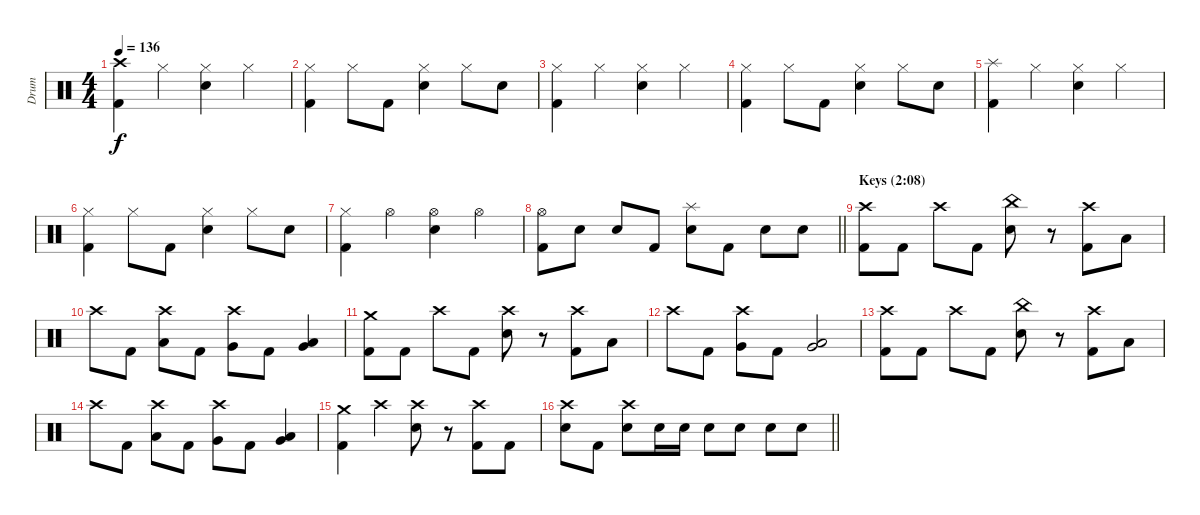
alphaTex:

\track ("Drum" "Drum") {instrument percussion}
\staff {score}
\articulation defaults
\ts (4 4)
\tempo 136
\clef neutral
\ks c
("Crash high (hit)" "Kick (hit) 2").4{dy f} "Hi-Hat (closed)".4 ("Hi-Hat (closed)" "Snare (hit) 2").4 "Hi-Hat (closed)".4 |
("Hi-Hat (closed)" "Kick (hit) 2").4 "Hi-Hat (closed)".8 "Kick (hit) 2".8 ("Hi-Hat (closed)" "Snare (hit) 2").4 "Hi-Hat (closed)".8 "Snare (hit) 2".8 |
("Hi-Hat (closed)" "Kick (hit) 2").4 "Hi-Hat (closed)".4 ("Hi-Hat (closed)" "Snare (hit) 2").4 "Hi-Hat (closed)".4 |
("Hi-Hat (closed)" "Kick (hit) 2").4 "Hi-Hat (closed)".8 "Kick (hit) 2".8 ("Hi-Hat (closed)" "Snare (hit) 2").4 "Hi-Hat (closed)".8 "Snare (hit) 2".8 |
("Splash (hit)" "Kick (hit) 2").4 "Hi-Hat (closed)".4 ("Hi-Hat (closed)" "Snare (hit) 2").4 "Hi-Hat (closed)".4 |
("Hi-Hat (closed)" "Kick (hit) 2").4 "Hi-Hat (closed)".8 "Kick (hit) 2".8 ("Hi-Hat (closed)" "Snare (hit) 2").4 "Hi-Hat (closed)".8 "Snare (hit) 2".8 |
("Hi-Hat (closed)" "Kick (hit) 2").4 "Hi-Hat (open)".4 ("Hi-Hat (open)" "Snare (hit) 2").4 "Hi-Hat (open)".4 |
\barLineRight lightlight
("Hi-Hat (open)" "Kick (hit) 2").8 "Snare (hit) 2".8 "Snare (hit) 2".8 "Kick (hit) 2".8 ("Splash (hit)" "Snare (hit) 2").8 "Kick (hit) 2".8 "Snare (hit) 2".8 "Snare (hit) 2".8 |
\section ("" "Keys (2:08)")
("Crash high (hit)" "Kick (hit) 2").8 "Kick (hit) 2".8 "Crash high (hit)".8 "Kick (hit) 2".8 ("China (hit)" "Snare (hit) 2").8 r.8 ("Crash high (hit)" "Kick (hit) 2").8 "Low Tom (hit)".8 |
"Crash high (hit)".8 "Kick (hit) 2".8 ("Crash high (hit)" "Low Tom (hit)").8 "Kick (hit) 2".8 ("Crash high (hit)" "Very Low Tom (hit)").8 "Kick (hit) 2".8 ("Very Low Tom (hit)" "Low Floor Tom (hit)").4 |
("Crash medium (hit)" "Kick (hit) 2").8 "Kick (hit) 2".8 "Crash high (hit)".8 "Kick (hit) 2".8 ("Crash high (hit)" "Snare (hit) 2").8 r.8 ("Crash high (hit)" "Kick (hit) 2").8 "Low Tom (hit)".8 |
"Crash high (hit)".8 "Kick (hit) 2".8 ("Crash high (hit)" "Very Low Tom (hit)").8 "Kick (hit) 2".8 ("Very Low Tom (hit)" "Low Floor Tom (hit)").2 |
("Crash high (hit)" "Kick (hit) 2").8 "Kick (hit) 2".8 "Crash high (hit)".8 "Kick (hit) 2".8 ("China (hit)" "Snare (hit) 2").8 r.8 ("Crash high (hit)" "Kick (hit) 2").8 "Low Tom (hit)".8 |
"Crash high (hit)".8 "Kick (hit) 2".8 ("Crash high (hit)" "Low Tom (hit)").8 "Kick (hit) 2".8 ("Crash high (hit)" "Very Low Tom (hit)").8 "Kick (hit) 2".8 ("Very Low Tom (hit)" "Low Floor Tom (hit)").4 |
("Crash medium (hit)" "Kick (hit) 2").4 "Crash high (hit)".4 ("Crash high (hit)" "Snare (hit) 2").8 r.8 ("Crash high (hit)" "Kick (hit) 2").8 "Kick (hit) 2".8 |
\barLineRight lightlight
("Crash high (hit)" "Snare (hit) 2").8 "Kick (hit) 2".8 ("Crash high (hit)" "Snare (hit) 2").8 "Snare (hit) 2".16 "Snare (hit) 2".16 "Snare (hit) 2".8 "Snare (hit) 2".8 "Snare (hit) 2".8 "Snare (hit) 2".8
